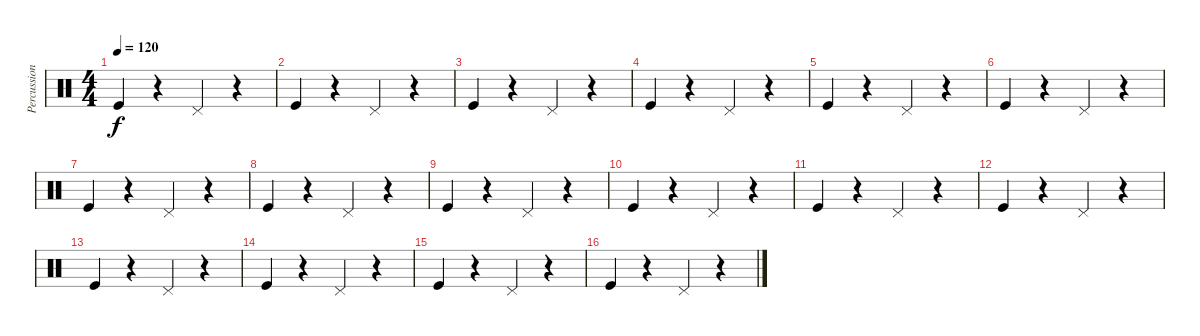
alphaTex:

\track ("Percussion" "Percussion") {instrument percussion}
\staff {score}
\articulation defaults
\ts (4 4)
\tempo 120
\clef neutral
\ks c "Kick (hit)".4{dy f}
r.4 "Pedal Hi-Hat (hit)".4 r.4 |
"Kick (hit)".4 r.4 "Pedal Hi-Hat (hit)".4 r.4 |
"Kick (hit)".4 r.4 "Pedal Hi-Hat (hit)".4 r.4 |
"Kick (hit)".4 r.4 "Pedal Hi-Hat (hit)".4 r.4 |
"Kick (hit)".4 r.4 "Pedal Hi-Hat (hit)".4 r.4 |
"Kick (hit)".4 r.4 "Pedal Hi-Hat (hit)".4 r.4 |
"Kick (hit)".4 r.4 "Pedal Hi-Hat (hit)".4 r.4 |
"Kick (hit)".4 r.4 "Pedal Hi-Hat (hit)".4 r.4 |
"Kick (hit)".4 r.4 "Pedal Hi-Hat (hit)".4 r.4 |
"Kick (hit)".4 r.4 "Pedal Hi-Hat (hit)".4 r.4 |
"Kick (hit)".4 r.4 "Pedal Hi-Hat (hit)".4 r.4 |
"Kick (hit)".4 r.4 "Pedal Hi-Hat (hit)".4 r.4 |
"Kick (hit)".4 r.4 "Pedal Hi-Hat (hit)".4 r.4 |
"Kick (hit)".4 r.4 "Pedal Hi-Hat (hit)".4 r.4 |
"Kick (hit)".4 r.4 "Pedal Hi-Hat (hit)".4 r.4 |
"Kick (hit)".4 r.4 "Pedal Hi-Hat (hit)".4 r.4
